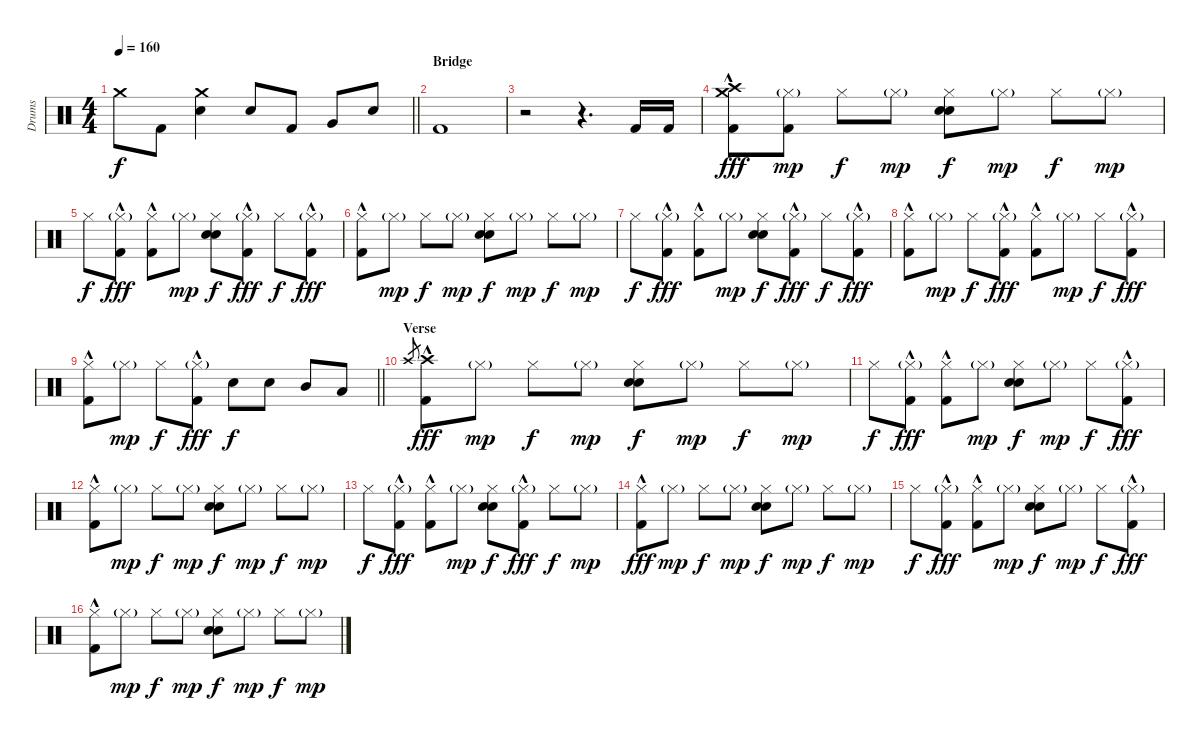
\track ("Drums" "Drums") {instrument percussion}
\staff {score}
\articulation defaults
\ts (4 4)
\tempo 160
\clef neutral
\barLineRight lightlight
\ks c "Crash medium (hit)".8{dy f} "Kick (hit) 2".8
("Crash medium (hit)" "Electric Snare (hit)").4 "Electric Snare (hit)".8 "Kick (hit) 2".8 "Very Low Tom (hit)".8 "Electric Snare (hit)".8 |
\section ("" "Bridge")
"Kick (hit) 2".1 |
r.2 r.4{d} "Kick (hit) 2".16 "Kick (hit) 2".16 |
("Crash high (hit)" "Crash medium (hit)" "Kick (hit) 2"{hac}).8{dy fff} ("Hi-Hat (closed)"{g} "Kick (hit) 2").8{dy mp} "Hi-Hat (closed)".8{dy f} "Hi-Hat (closed)"{g}.8{dy mp} ("Hi-Hat (closed)" "Hand Clap (hit)" "Electric Snare (hit)").8{dy f} "Hi-Hat (closed)"{g}.8{dy mp} "Hi-Hat (closed)".8{dy f} "Hi-Hat (closed)"{g}.8{dy mp} |
"Hi-Hat (closed)".8{dy f} ("Hi-Hat (closed)"{g} "Kick (hit) 2"{hac}).8{dy fff} ("Hi-Hat (closed)" "Kick (hit) 2"{hac}).8 "Hi-Hat (closed)"{g}.8{dy mp} ("Hi-Hat (closed)" "Hand Clap (hit)" "Electric Snare (hit)").8{dy f} ("Hi-Hat (closed)"{g} "Kick (hit) 2"{hac}).8{dy fff} "Hi-Hat (closed)".8{dy f} ("Hi-Hat (closed)"{g} "Kick (hit) 2"{hac}).8{dy fff} |
("Hi-Hat (closed)" "Kick (hit) 2"{hac}).8 "Hi-Hat (closed)"{g}.8{dy mp} "Hi-Hat (closed)".8{dy f} "Hi-Hat (closed)"{g}.8{dy mp} ("Hi-Hat (closed)" "Hand Clap (hit)" "Electric Snare (hit)").8{dy f} "Hi-Hat (closed)"{g}.8{dy mp} "Hi-Hat (closed)".8{dy f} "Hi-Hat (closed)"{g}.8{dy mp} |
"Hi-Hat (closed)".8{dy f} ("Hi-Hat (closed)"{g} "Kick (hit) 2"{hac}).8{dy fff} ("Hi-Hat (closed)" "Kick (hit) 2"{hac}).8 "Hi-Hat (closed)"{g}.8{dy mp} ("Hi-Hat (closed)" "Hand Clap (hit)" "Electric Snare (hit)").8{dy f} ("Hi-Hat (closed)"{g} "Kick (hit) 2"{hac}).8{dy fff} "Hi-Hat (closed)".8{dy f} ("Hi-Hat (closed)"{g} "Kick (hit) 2"{hac}).8{dy fff} |
("Hi-Hat (closed)" "Kick (hit) 2"{hac}).8 "Hi-Hat (closed)"{g}.8{dy mp} "Hi-Hat (closed)".8{dy f} ("Hi-Hat (closed)"{g} "Kick (hit) 2"{hac}).8{dy fff} ("Hi-Hat (closed)" "Kick (hit) 2"{hac}).8 "Hi-Hat (closed)"{g}.8{dy mp} "Hi-Hat (closed)".8{dy f} ("Hi-Hat (closed)"{g} "Kick (hit) 2"{hac}).8{dy fff} |
\barLineRight lightlight
("Hi-Hat (closed)" "Kick (hit) 2"{hac}).8 "Hi-Hat (closed)"{g}.8{dy mp} "Hi-Hat (closed)".8{dy f} ("Hi-Hat (closed)"{g} "Kick (hit) 2"{hac}).8{dy fff} "Electric Snare (hit)".8{dy f} "Electric Snare (hit)".8 "Mid Tom (hit)".8 "Low Tom (hit)".8 |
\section ("" "Verse")
"Crash high (hit)".8{gr} ("Crash high (hit)" "Kick (hit) 2"{hac}).8{dy fff} "Hi-Hat (closed)"{g}.8{dy mp} "Hi-Hat (closed)".8{dy f} "Hi-Hat (closed)"{g}.8{dy mp} ("Hi-Hat (closed)" "Hand Clap (hit)" "Electric Snare (hit)").8{dy f} "Hi-Hat (closed)"{g}.8{dy mp} "Hi-Hat (closed)".8{dy f} "Hi-Hat (closed)"{g}.8{dy mp} |
"Hi-Hat (closed)".8{dy f} ("Hi-Hat (closed)"{g} "Kick (hit) 2"{hac}).8{dy fff} ("Hi-Hat (closed)" "Kick (hit) 2"{hac}).8 "Hi-Hat (closed)"{g}.8{dy mp} ("Hi-Hat (closed)" "Hand Clap (hit)" "Electric Snare (hit)").8{dy f} "Hi-Hat (closed)"{g}.8{dy mp} "Hi-Hat (closed)".8{dy f} ("Hi-Hat (closed)"{g} "Kick (hit) 2"{hac}).8{dy fff} |
("Hi-Hat (closed)" "Kick (hit) 2"{hac}).8 "Hi-Hat (closed)"{g}.8{dy mp} "Hi-Hat (closed)".8{dy f} "Hi-Hat (closed)"{g}.8{dy mp} ("Hi-Hat (closed)" "Hand Clap (hit)" "Electric Snare (hit)").8{dy f} "Hi-Hat (closed)"{g}.8{dy mp} "Hi-Hat (closed)".8{dy f} "Hi-Hat (closed)"{g}.8{dy mp} |
"Hi-Hat (closed)".8{dy f} ("Hi-Hat (closed)"{g} "Kick (hit) 2"{hac}).8{dy fff} ("Hi-Hat (closed)" "Kick (hit) 2"{hac}).8 "Hi-Hat (closed)"{g}.8{dy mp} ("Hi-Hat (closed)" "Hand Clap (hit)" "Electric Snare (hit)").8{dy f} ("Hi-Hat (closed)"{g} "Kick (hit) 2"{hac}).8{dy fff} "Hi-Hat (closed)".8{dy f} "Hi-Hat (closed)"{g}.8{dy mp} |
("Hi-Hat (closed)" "Kick (hit) 2"{hac}).8{dy fff} "Hi-Hat (closed)"{g}.8{dy mp} "Hi-Hat (closed)".8{dy f} "Hi-Hat (closed)"{g}.8{dy mp} ("Hi-Hat (closed)" "Hand Clap (hit)" "Electric Snare (hit)").8{dy f} "Hi-Hat (closed)"{g}.8{dy mp} "Hi-Hat (closed)".8{dy f} "Hi-Hat (closed)"{g}.8{dy mp} |
"Hi-Hat (closed)".8{dy f} ("Hi-Hat (closed)"{g} "Kick (hit) 2"{hac}).8{dy fff} ("Hi-Hat (closed)" "Kick (hit) 2"{hac}).8 "Hi-Hat (closed)"{g}.8{dy mp} ("Hi-Hat (closed)" "Hand Clap (hit)" "Electric Snare (hit)").8{dy f} "Hi-Hat (closed)"{g}.8{dy mp} "Hi-Hat (closed)".8{dy f} ("Hi-Hat (closed)"{g} "Kick (hit) 2"{hac}).8{dy fff} |
("Hi-Hat (closed)" "Kick (hit) 2"{hac}).8 "Hi-Hat (closed)"{g}.8{dy mp} "Hi-Hat (closed)".8{dy f} "Hi-Hat (closed)"{g}.8{dy mp} ("Hi-Hat (closed)" "Hand Clap (hit)" "Electric Snare (hit)").8{dy f} "Hi-Hat (closed)"{g}.8{dy mp} "Hi-Hat (closed)".8{dy f} "Hi-Hat (closed)"{g}.8{dy mp}
